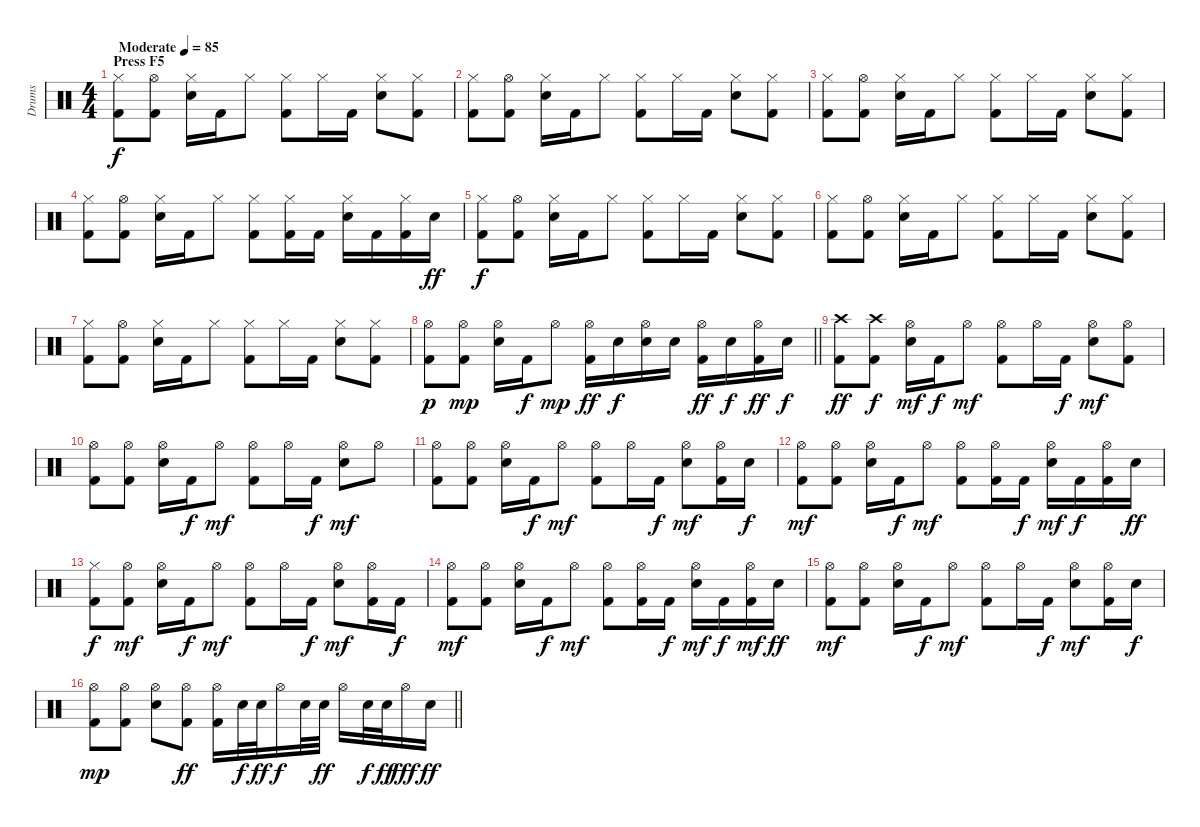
\track ("Drums" "Drums") {instrument percussion}
\staff {score}
\articulation defaults
\ts (4 4)
\section ("" "Press F5")
\tempo (85 "Moderate")
\clef neutral
\ks c
("Hi-Hat (closed)" "Kick (hit) 2").8{dy f} ("Hi-Hat (open)" "Kick (hit) 2").8 ("Hi-Hat (closed)" "Snare (hit) 2").16 "Kick (hit) 2".16 "Hi-Hat (closed)".8 ("Hi-Hat (closed)" "Kick (hit) 2").8 "Hi-Hat (closed)".16 "Kick (hit) 2".16 ("Hi-Hat (closed)" "Snare (hit) 2").8 ("Hi-Hat (closed)" "Kick (hit) 2").8 |
("Hi-Hat (closed)" "Kick (hit) 2").8 ("Hi-Hat (open)" "Kick (hit) 2").8 ("Hi-Hat (closed)" "Snare (hit) 2").16 "Kick (hit) 2".16 "Hi-Hat (closed)".8 ("Hi-Hat (closed)" "Kick (hit) 2").8 "Hi-Hat (closed)".16 "Kick (hit) 2".16 ("Hi-Hat (closed)" "Snare (hit) 2").8 ("Hi-Hat (closed)" "Kick (hit) 2").8 |
("Hi-Hat (closed)" "Kick (hit) 2").8 ("Hi-Hat (open)" "Kick (hit) 2").8 ("Hi-Hat (closed)" "Snare (hit) 2").16 "Kick (hit) 2".16 "Hi-Hat (closed)".8 ("Hi-Hat (closed)" "Kick (hit) 2").8 "Hi-Hat (closed)".16 "Kick (hit) 2".16 ("Hi-Hat (closed)" "Snare (hit) 2").8 ("Hi-Hat (closed)" "Kick (hit) 2").8 |
("Hi-Hat (closed)" "Kick (hit) 2").8 ("Hi-Hat (open)" "Kick (hit) 2").8 ("Hi-Hat (closed)" "Snare (hit) 2").16 "Kick (hit) 2".16 "Hi-Hat (closed)".8 ("Hi-Hat (closed)" "Kick (hit) 2").8 ("Hi-Hat (closed)" "Kick (hit) 2").16 "Kick (hit) 2".16 ("Hi-Hat (closed)" "Snare (hit) 2").16 "Kick (hit) 2".16 ("Hi-Hat (closed)" "Kick (hit) 2").16 "Snare (hit) 2".16{dy ff} |
("Hi-Hat (closed)" "Kick (hit) 2").8{dy f} ("Hi-Hat (open)" "Kick (hit) 2").8 ("Hi-Hat (closed)" "Snare (hit) 2").16 "Kick (hit) 2".16 "Hi-Hat (closed)".8 ("Hi-Hat (closed)" "Kick (hit) 2").8 "Hi-Hat (closed)".16 "Kick (hit) 2".16 ("Hi-Hat (closed)" "Snare (hit) 2").8 ("Hi-Hat (closed)" "Kick (hit) 2").8 |
("Hi-Hat (closed)" "Kick (hit) 2").8 ("Hi-Hat (open)" "Kick (hit) 2").8 ("Hi-Hat (closed)" "Snare (hit) 2").16 "Kick (hit) 2".16 "Hi-Hat (closed)".8 ("Hi-Hat (closed)" "Kick (hit) 2").8 "Hi-Hat (closed)".16 "Kick (hit) 2".16 ("Hi-Hat (closed)" "Snare (hit) 2").8 ("Hi-Hat (closed)" "Kick (hit) 2").8 |
("Hi-Hat (closed)" "Kick (hit) 2").8 ("Hi-Hat (open)" "Kick (hit) 2").8 ("Hi-Hat (closed)" "Snare (hit) 2").16 "Kick (hit) 2".16 "Hi-Hat (closed)".8 ("Hi-Hat (closed)" "Kick (hit) 2").8 "Hi-Hat (closed)".16 "Kick (hit) 2".16 ("Hi-Hat (closed)" "Snare (hit) 2").8 ("Hi-Hat (closed)" "Kick (hit) 2").8 |
\barLineRight lightlight
("Hi-Hat (open)" "Kick (hit) 2").8{dy p} ("Hi-Hat (open)" "Kick (hit) 2").8{dy mp} ("Hi-Hat (open)" "Snare (hit) 2").16 "Kick (hit) 2".16{dy f} "Hi-Hat (open)".8{dy mp} ("Hi-Hat (open)" "Kick (hit) 2").16{dy ff} "Snare (hit) 2".16{dy f} ("Hi-Hat (open)" "Snare (hit) 2").16 "Snare (hit) 2".16 ("Hi-Hat (open)" "Kick (hit) 2").16{dy ff} "Snare (hit) 2".16{dy f} ("Hi-Hat (open)" "Kick (hit) 2").16{dy ff} "Snare (hit) 2".16{dy f} |
\section ("" "")
("Crash high (hit)" "Kick (hit) 2").8{dy ff} ("Crash high (hit)" "Kick (hit) 2").8{dy f} ("Hi-Hat (open)" "Snare (hit) 2").16{dy mf} "Kick (hit) 2".16{dy f} "Hi-Hat (open)".8{dy mf} ("Hi-Hat (open)" "Kick (hit) 2").8 "Hi-Hat (open)".16 "Kick (hit) 2".16{dy f} ("Hi-Hat (open)" "Snare (hit) 2").8{dy mf} ("Hi-Hat (open)" "Kick (hit) 2").8 |
("Hi-Hat (open)" "Kick (hit) 2").8 ("Hi-Hat (open)" "Kick (hit) 2").8 ("Hi-Hat (open)" "Snare (hit) 2").16 "Kick (hit) 2".16{dy f} "Hi-Hat (open)".8{dy mf} ("Hi-Hat (open)" "Kick (hit) 2").8 "Hi-Hat (open)".16 "Kick (hit) 2".16{dy f} ("Hi-Hat (open)" "Snare (hit) 2").8{dy mf} "Hi-Hat (open)".8 |
("Hi-Hat (open)" "Kick (hit) 2").8 ("Hi-Hat (open)" "Kick (hit) 2").8 ("Hi-Hat (open)" "Snare (hit) 2").16 "Kick (hit) 2".16{dy f} "Hi-Hat (open)".8{dy mf} ("Hi-Hat (open)" "Kick (hit) 2").8 "Hi-Hat (open)".16 "Kick (hit) 2".16{dy f} ("Hi-Hat (open)" "Snare (hit) 2").8{dy mf} ("Hi-Hat (open)" "Kick (hit) 2").16 "Snare (hit) 2".16{dy f} |
("Hi-Hat (open)" "Kick (hit) 2").8{dy mf} ("Hi-Hat (open)" "Kick (hit) 2").8 ("Hi-Hat (open)" "Snare (hit) 2").16 "Kick (hit) 2".16{dy f} "Hi-Hat (open)".8{dy mf} ("Hi-Hat (open)" "Kick (hit) 2").8 ("Hi-Hat (open)" "Kick (hit) 2").16 "Kick (hit) 2".16{dy f} ("Hi-Hat (open)" "Snare (hit) 2").16{dy mf} "Kick (hit) 2".16{dy f} ("Hi-Hat (open)" "Kick (hit) 2").16 "Snare (hit) 2".16{dy ff} |
("Hi-Hat (closed)" "Kick (hit) 2").8{dy f} ("Hi-Hat (open)" "Kick (hit) 2").8{dy mf} ("Hi-Hat (open)" "Snare (hit) 2").16 "Kick (hit) 2".16{dy f} "Hi-Hat (open)".8{dy mf} ("Hi-Hat (open)" "Kick (hit) 2").8 "Hi-Hat (open)".16 "Kick (hit) 2".16{dy f} ("Hi-Hat (open)" "Snare (hit) 2").8{dy mf} ("Hi-Hat (open)" "Kick (hit) 2").16 "Kick (hit) 2".16{dy f} |
("Hi-Hat (open)" "Kick (hit) 2").8{dy mf} ("Hi-Hat (open)" "Kick (hit) 2").8 ("Hi-Hat (open)" "Snare (hit) 2").16 "Kick (hit) 2".16{dy f} "Hi-Hat (open)".8{dy mf} ("Hi-Hat (open)" "Kick (hit) 2").8 ("Hi-Hat (open)" "Kick (hit) 2").16 "Kick (hit) 2".16{dy f} ("Hi-Hat (open)" "Snare (hit) 2").16{dy mf} "Kick (hit) 2".16{dy f} ("Hi-Hat (open)" "Kick (hit) 2").16{dy mf} "Snare (hit) 2".16{dy ff} |
("Hi-Hat (open)" "Kick (hit) 2").8{dy mf} ("Hi-Hat (open)" "Kick (hit) 2").8 ("Hi-Hat (open)" "Snare (hit) 2").16 "Kick (hit) 2".16{dy f} "Hi-Hat (open)".8{dy mf} ("Hi-Hat (open)" "Kick (hit) 2").8 "Hi-Hat (open)".16 "Kick (hit) 2".16{dy f} ("Hi-Hat (open)" "Snare (hit) 2").8{dy mf} ("Hi-Hat (open)" "Kick (hit) 2").16 "Snare (hit) 2".16{dy f} |
\barLineRight lightlight
("Hi-Hat (open)" "Kick (hit) 2").8{dy mp} ("Hi-Hat (open)" "Kick (hit) 2").8 ("Hi-Hat (open)" "Snare (hit) 2").8 ("Hi-Hat (open)" "Kick (hit) 2").8{dy ff} ("Hi-Hat (open)" "Kick (hit) 2").16 "Snare (hit) 2".32{dy f} "Snare (hit) 2".32{dy ff} "Hi-Hat (open)".16{dy f} "Snare (hit) 2".32 "Snare (hit) 2".32{dy ff} "Hi-Hat (open)".16 "Snare (hit) 2".32{dy f} "Snare (hit) 2".32{dy ff} "Hi-Hat (open)".16{dy fff} "Snare (hit) 2".16{dy ff}
